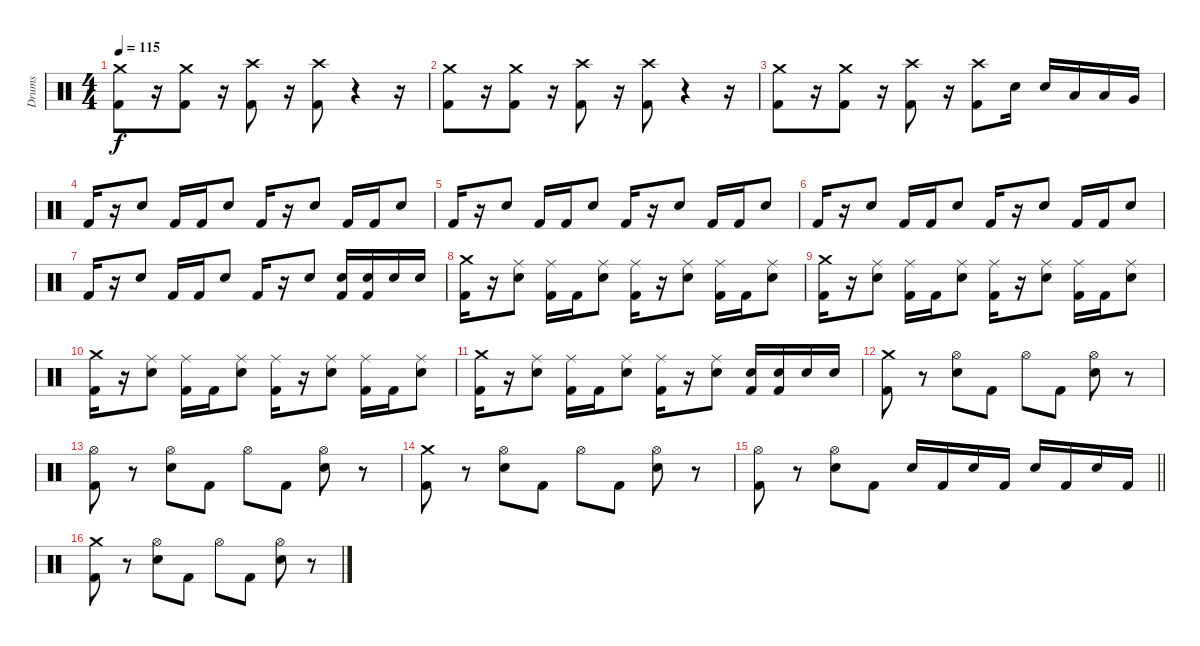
\track ("Drums" "Drums") {instrument percussion}
\staff {score}
\articulation defaults
\ts (4 4)
\tempo 115
\clef neutral
\ks c
("Crash medium (hit)" "Kick (hit) 2").8{dy f} r.16 ("Crash medium (hit)" "Kick (hit) 2").8 r.16 ("Crash high (hit)" "Kick (hit) 2").8 r.16 ("Crash high (hit)" "Kick (hit) 2").8 r.4 r.16 |
("Crash medium (hit)" "Kick (hit) 2").8 r.16 ("Crash medium (hit)" "Kick (hit) 2").8 r.16 ("Crash high (hit)" "Kick (hit) 2").8 r.16 ("Crash high (hit)" "Kick (hit) 2").8 r.4 r.16 |
("Crash medium (hit)" "Kick (hit) 2").8 r.16 ("Crash medium (hit)" "Kick (hit) 2").8 r.16 ("Crash high (hit)" "Kick (hit) 2").8 r.16 ("Crash high (hit)" "Kick (hit) 2").8 "Electric Snare (hit)".16 "Electric Snare (hit)".16 "Low Tom (hit)".16 "Low Tom (hit)".16 "Very Low Tom (hit)".16 |
"Kick (hit) 2".16 r.16 "Electric Snare (hit)".8 "Kick (hit) 2".16 "Kick (hit) 2".16 "Electric Snare (hit)".8 "Kick (hit) 2".16 r.16 "Electric Snare (hit)".8 "Kick (hit) 2".16 "Kick (hit) 2".16 "Electric Snare (hit)".8 |
"Kick (hit) 2".16 r.16 "Electric Snare (hit)".8 "Kick (hit) 2".16 "Kick (hit) 2".16 "Electric Snare (hit)".8 "Kick (hit) 2".16 r.16 "Electric Snare (hit)".8 "Kick (hit) 2".16 "Kick (hit) 2".16 "Electric Snare (hit)".8 |
"Kick (hit) 2".16 r.16 "Electric Snare (hit)".8 "Kick (hit) 2".16 "Kick (hit) 2".16 "Electric Snare (hit)".8 "Kick (hit) 2".16 r.16 "Electric Snare (hit)".8 "Kick (hit) 2".16 "Kick (hit) 2".16 "Electric Snare (hit)".8 |
"Kick (hit) 2".16 r.16 "Electric Snare (hit)".8 "Kick (hit) 2".16 "Kick (hit) 2".16 "Electric Snare (hit)".8 "Kick (hit) 2".16 r.16 "Electric Snare (hit)".8 ("Electric Snare (hit)" "Kick (hit) 2").16 ("Electric Snare (hit)" "Kick (hit) 2").16 "Electric Snare (hit)".16 "Electric Snare (hit)".16 |
("Crash medium (hit)" "Kick (hit) 2").16 r.16 ("Ride (middle)" "Electric Snare (hit)").8 ("Ride (middle)" "Kick (hit) 2").16 "Kick (hit) 2".16 ("Ride (middle)" "Electric Snare (hit)").8 ("Ride (middle)" "Kick (hit) 2").16 r.16 ("Ride (middle)" "Electric Snare (hit)").8 ("Ride (middle)" "Kick (hit) 2").16 "Kick (hit) 2".16 ("Ride (middle)" "Electric Snare (hit)").8 |
("Crash medium (hit)" "Kick (hit) 2").16 r.16 ("Ride (middle)" "Electric Snare (hit)").8 ("Ride (middle)" "Kick (hit) 2").16 "Kick (hit) 2".16 ("Ride (middle)" "Electric Snare (hit)").8 ("Ride (middle)" "Kick (hit) 2").16 r.16 ("Ride (middle)" "Electric Snare (hit)").8 ("Ride (middle)" "Kick (hit) 2").16 "Kick (hit) 2".16 ("Ride (middle)" "Electric Snare (hit)").8 |
("Crash medium (hit)" "Kick (hit) 2").16 r.16 ("Ride (middle)" "Electric Snare (hit)").8 ("Ride (middle)" "Kick (hit) 2").16 "Kick (hit) 2".16 ("Ride (middle)" "Electric Snare (hit)").8 ("Ride (middle)" "Kick (hit) 2").16 r.16 ("Ride (middle)" "Electric Snare (hit)").8 ("Ride (middle)" "Kick (hit) 2").16 "Kick (hit) 2".16 ("Ride (middle)" "Electric Snare (hit)").8 |
("Crash medium (hit)" "Kick (hit) 2").16 r.16 ("Ride (middle)" "Electric Snare (hit)").8 ("Ride (middle)" "Kick (hit) 2").16 "Kick (hit) 2".16 ("Ride (middle)" "Electric Snare (hit)").8 ("Ride (middle)" "Kick (hit) 2").16 r.16 ("Ride (middle)" "Electric Snare (hit)").8 ("Electric Snare (hit)" "Kick (hit) 2").16 ("Electric Snare (hit)" "Kick (hit) 2").16 "Electric Snare (hit)".16 "Electric Snare (hit)".16 |
("Crash medium (hit)" "Kick (hit) 2").8 r.8 ("Hi-Hat (open)" "Electric Snare (hit)").8 "Kick (hit) 2".8 "Hi-Hat (open)".8 "Kick (hit) 2".8 ("Hi-Hat (open)" "Electric Snare (hit)").8 r.8 |
("Hi-Hat (open)" "Kick (hit) 2").8 r.8 ("Hi-Hat (open)" "Electric Snare (hit)").8 "Kick (hit) 2".8 "Hi-Hat (open)".8 "Kick (hit) 2".8 ("Hi-Hat (open)" "Electric Snare (hit)").8 r.8 |
("Crash medium (hit)" "Kick (hit) 2").8 r.8 ("Hi-Hat (open)" "Electric Snare (hit)").8 "Kick (hit) 2".8 "Hi-Hat (open)".8 "Kick (hit) 2".8 ("Hi-Hat (open)" "Electric Snare (hit)").8 r.8 |
\barLineRight lightlight
("Hi-Hat (open)" "Kick (hit) 2").8 r.8 ("Hi-Hat (open)" "Electric Snare (hit)").8 "Kick (hit) 2".8 "Electric Snare (hit)".16 "Kick (hit) 2".16 "Electric Snare (hit)".16 "Kick (hit) 2".16 "Electric Snare (hit)".16 "Kick (hit) 2".16 "Electric Snare (hit)".16 "Kick (hit) 2".16 |
("Crash medium (hit)" "Kick (hit) 2").8 r.8 ("Hi-Hat (open)" "Electric Snare (hit)").8 "Kick (hit) 2".8 "Hi-Hat (open)".8 "Kick (hit) 2".8 ("Hi-Hat (open)" "Electric Snare (hit)").8 r.8
